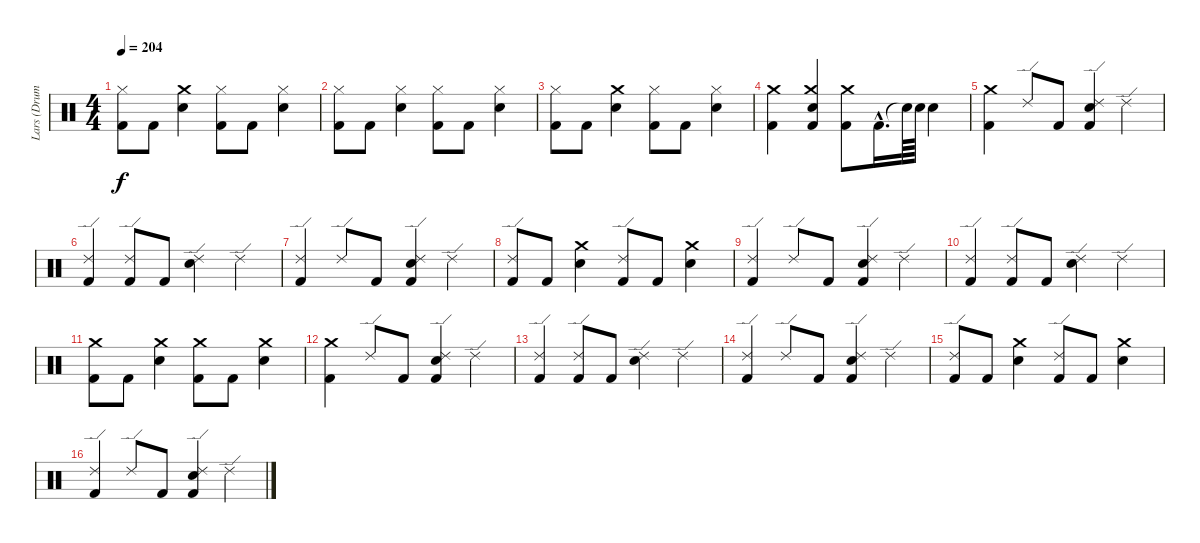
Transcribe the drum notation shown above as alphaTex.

\track ("Lars (Drums)" "Lars (Drum") {instrument percussion}
\staff {score}
\articulation defaults
\ts (4 4)
\tempo 204
\clef neutral
\ks c
("Kick (hit) 2" "Hi-Hat (closed)").8{dy f} "Kick (hit) 2".8 ("Crash medium (hit)" "Snare (hit) 2").4 ("Kick (hit) 2" "Hi-Hat (closed)").8 "Kick (hit) 2".8 ("Snare (hit) 2" "Hi-Hat (closed)").4 |
("Kick (hit) 2" "Hi-Hat (closed)").8 "Kick (hit) 2".8 ("Snare (hit) 2" "Hi-Hat (closed)").4 ("Kick (hit) 2" "Hi-Hat (closed)").8 "Kick (hit) 2".8 ("Snare (hit) 2" "Hi-Hat (closed)").4 |
("Kick (hit) 2" "Hi-Hat (closed)").8 "Kick (hit) 2".8 ("Crash medium (hit)" "Snare (hit) 2").4 ("Kick (hit) 2" "Hi-Hat (closed)").8 "Kick (hit) 2".8 ("Snare (hit) 2" "Hi-Hat (closed)").4 |
("Kick (hit) 2" "Crash medium (hit)").4 ("Kick (hit) 2" "Snare (hit) 2" "Crash medium (hit)").4 ("Kick (hit) 2" "Crash medium (hit)").8 "Kick (hit) 2"{hac}.16{d} "Snare (hit)"{t}.64 "Snare (hit) 2".64 "Snare (hit) 2".4 |
("Kick (hit) 2" "Crash medium (hit)").4 "Ride (edge) 2".8 "Kick (hit) 2".8 ("Kick (hit) 2" "Snare (hit) 2" "Ride (edge) 2").4 "Ride (edge) 2".4 |
("Kick (hit) 2" "Ride (edge) 2").4 ("Ride (edge) 2" "Kick (hit) 2").8 "Kick (hit) 2".8 ("Snare (hit) 2" "Ride (edge) 2").4 "Ride (edge) 2".4 |
("Kick (hit) 2" "Ride (edge) 2").4 "Ride (edge) 2".8 "Kick (hit) 2".8 ("Ride (edge) 2" "Snare (hit) 2" "Kick (hit) 2").4 "Ride (edge) 2".4 |
("Ride (edge) 2" "Kick (hit) 2").8 "Kick (hit) 2".8 ("Snare (hit) 2" "Crash medium (hit)").4 ("Ride (edge) 2" "Kick (hit) 2").8 "Kick (hit) 2".8 ("Snare (hit) 2" "Crash medium (hit)").4 |
("Ride (edge) 2" "Kick (hit) 2").4 "Ride (edge) 2".8 "Kick (hit) 2".8 ("Ride (edge) 2" "Snare (hit) 2" "Kick (hit) 2").4 "Ride (edge) 2".4 |
("Kick (hit) 2" "Ride (edge) 2").4 ("Ride (edge) 2" "Kick (hit) 2").8 "Kick (hit) 2".8 ("Snare (hit) 2" "Ride (edge) 2").4 "Ride (edge) 2".4 |
("Kick (hit) 2" "Crash medium (hit)").8 "Kick (hit) 2".8 ("Snare (hit) 2" "Crash medium (hit)").4 ("Kick (hit) 2" "Crash medium (hit)").8 "Kick (hit) 2".8 ("Snare (hit) 2" "Crash medium (hit)").4 |
("Kick (hit) 2" "Crash medium (hit)").4 "Ride (edge) 2".8 "Kick (hit) 2".8 ("Kick (hit) 2" "Snare (hit) 2" "Ride (edge) 2").4 "Ride (edge) 2".4 |
("Kick (hit) 2" "Ride (edge) 2").4 ("Ride (edge) 2" "Kick (hit) 2").8 "Kick (hit) 2".8 ("Snare (hit) 2" "Ride (edge) 2").4 "Ride (edge) 2".4 |
("Kick (hit) 2" "Ride (edge) 2").4 "Ride (edge) 2".8 "Kick (hit) 2".8 ("Ride (edge) 2" "Snare (hit) 2" "Kick (hit) 2").4 "Ride (edge) 2".4 |
("Ride (edge) 2" "Kick (hit) 2").8 "Kick (hit) 2".8 ("Snare (hit) 2" "Crash medium (hit)").4 ("Ride (edge) 2" "Kick (hit) 2").8 "Kick (hit) 2".8 ("Snare (hit) 2" "Crash medium (hit)").4 |
("Ride (edge) 2" "Kick (hit) 2").4 "Ride (edge) 2".8 "Kick (hit) 2".8 ("Ride (edge) 2" "Snare (hit) 2" "Kick (hit) 2").4 "Ride (edge) 2".4
